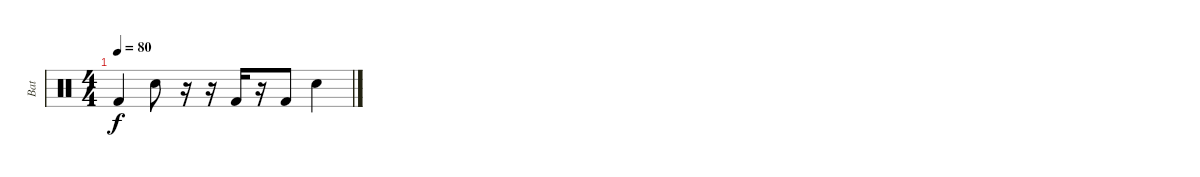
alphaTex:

\track ("Bat" "Bat") {instrument percussion}
\staff {score}
\articulation defaults
\ts (4 4)
\tempo 80
\clef neutral
\ks c "Kick (hit) 2".4{dy f} "Snare (hit) 2".8
r.16 r.16 "Kick (hit) 2".16 r.16 "Kick (hit) 2".8 "Snare (hit) 2".4
